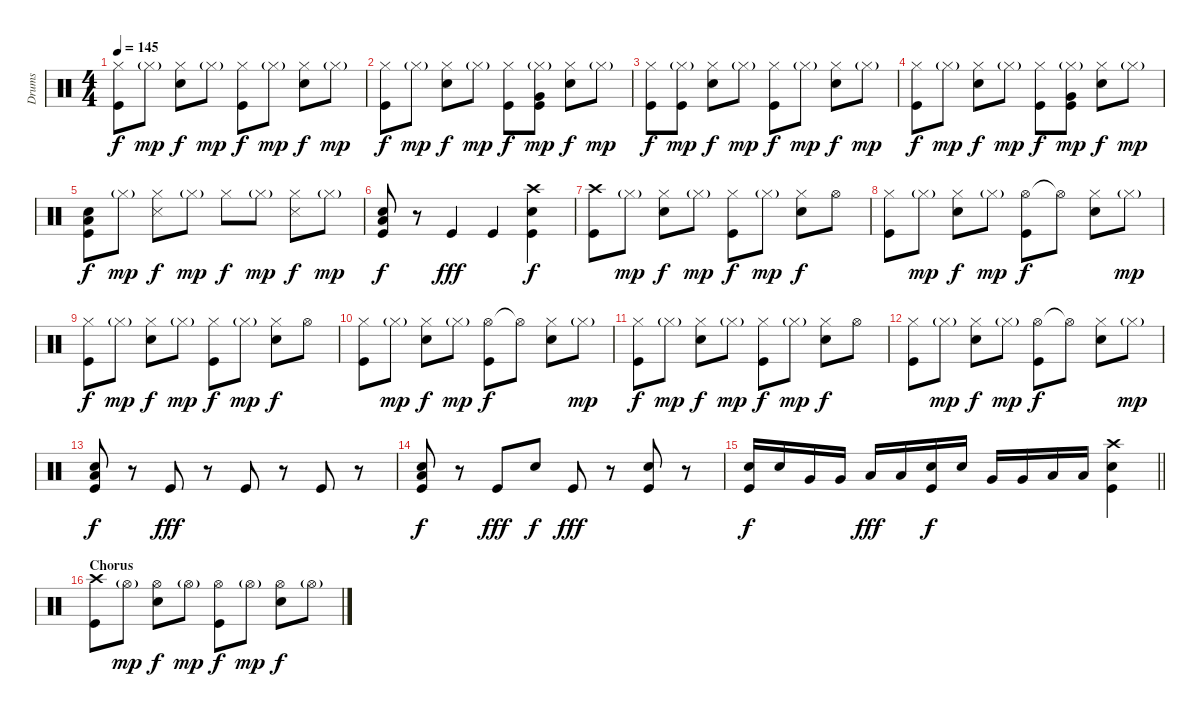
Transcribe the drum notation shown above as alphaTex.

\track ("Drums" "Drums") {instrument percussion}
\staff {score}
\articulation defaults
\ts (4 4)
\tempo 145
\clef neutral
\ks c
("Hi-Hat (closed)" "Kick (hit)").8{dy f} "Hi-Hat (closed)"{g}.8{dy mp} ("Hi-Hat (closed)" "Snare (hit) 2").8{dy f} "Hi-Hat (closed)"{g}.8{dy mp} ("Hi-Hat (closed)" "Kick (hit)").8{dy f} "Hi-Hat (closed)"{g}.8{dy mp} ("Hi-Hat (closed)" "Snare (hit) 2").8{dy f} "Hi-Hat (closed)"{g}.8{dy mp} |
("Hi-Hat (closed)" "Kick (hit)").8{dy f} "Hi-Hat (closed)"{g}.8{dy mp} ("Hi-Hat (closed)" "Snare (hit) 2").8{dy f} "Hi-Hat (closed)"{g}.8{dy mp} ("Hi-Hat (closed)" "Kick (hit)").8{dy f} ("Hi-Hat (closed)"{g} "Very Low Tom (hit)" "Kick (hit)").8{dy mp} ("Hi-Hat (closed)" "Snare (hit) 2").8{dy f} "Hi-Hat (closed)"{g}.8{dy mp} |
("Hi-Hat (closed)" "Kick (hit)").8{dy f} ("Hi-Hat (closed)"{g} "Kick (hit)").8{dy mp} ("Hi-Hat (closed)" "Snare (hit) 2").8{dy f} "Hi-Hat (closed)"{g}.8{dy mp} ("Hi-Hat (closed)" "Kick (hit)").8{dy f} "Hi-Hat (closed)"{g}.8{dy mp} ("Hi-Hat (closed)" "Snare (hit) 2").8{dy f} "Hi-Hat (closed)"{g}.8{dy mp} |
("Hi-Hat (closed)" "Kick (hit)").8{dy f} "Hi-Hat (closed)"{g}.8{dy mp} ("Hi-Hat (closed)" "Snare (hit) 2").8{dy f} "Hi-Hat (closed)"{g}.8{dy mp} ("Hi-Hat (closed)" "Kick (hit)").8{dy f} ("Hi-Hat (closed)"{g} "Very Low Tom (hit)" "Kick (hit)").8{dy mp} ("Hi-Hat (closed)" "Snare (hit) 2").8{dy f} "Hi-Hat (closed)"{g}.8{dy mp} |
("Snare (hit) 2" "Low Floor Tom (hit)" "Kick (hit)").8{dy f} "Hi-Hat (closed)"{g}.8{dy mp} ("Hi-Hat (closed)" "Snare (side stick) 3").8{dy f} "Hi-Hat (closed)"{g}.8{dy mp} "Hi-Hat (closed)".8{dy f} "Hi-Hat (closed)"{g}.8{dy mp} ("Hi-Hat (closed)" "Snare (side stick) 3").8{dy f} "Hi-Hat (closed)"{g}.8{dy mp} |
("Snare (hit) 2" "Low Floor Tom (hit)" "Kick (hit)").8{dy f} r.8 "Kick (hit)".4{dy fff} "Kick (hit)".4 ("Crash high (hit)" "Snare (hit) 2" "Kick (hit)").4{dy f} |
("Crash high (hit)" "Kick (hit)").8 "Hi-Hat (closed)"{g}.8{dy mp} ("Hi-Hat (closed)" "Snare (hit) 2").8{dy f} "Hi-Hat (closed)"{g}.8{dy mp} ("Hi-Hat (closed)" "Kick (hit)").8{dy f} "Hi-Hat (closed)"{g}.8{dy mp} ("Hi-Hat (closed)" "Snare (hit) 2").8{dy f} "Hi-Hat (open)".8 |
("Hi-Hat (closed)" "Kick (hit)").8 "Hi-Hat (closed)"{g}.8{dy mp} ("Hi-Hat (closed)" "Snare (hit) 2").8{dy f} "Hi-Hat (closed)"{g}.8{dy mp} ("Hi-Hat (open)" "Kick (hit)").8{dy f} "Hi-Hat (open)"{t}.8 ("Hi-Hat (closed)" "Snare (hit) 2").8 "Hi-Hat (closed)"{g}.8{dy mp} |
("Hi-Hat (closed)" "Kick (hit)").8{dy f} "Hi-Hat (closed)"{g}.8{dy mp} ("Hi-Hat (closed)" "Snare (hit) 2").8{dy f} "Hi-Hat (closed)"{g}.8{dy mp} ("Hi-Hat (closed)" "Kick (hit)").8{dy f} "Hi-Hat (closed)"{g}.8{dy mp} ("Hi-Hat (closed)" "Snare (hit) 2").8{dy f} "Hi-Hat (open)".8 |
("Hi-Hat (closed)" "Kick (hit)").8 "Hi-Hat (closed)"{g}.8{dy mp} ("Hi-Hat (closed)" "Snare (hit) 2").8{dy f} "Hi-Hat (closed)"{g}.8{dy mp} ("Hi-Hat (open)" "Kick (hit)").8{dy f} "Hi-Hat (open)"{t}.8 ("Hi-Hat (closed)" "Snare (hit) 2").8 "Hi-Hat (closed)"{g}.8{dy mp} |
("Hi-Hat (closed)" "Kick (hit)").8{dy f} "Hi-Hat (closed)"{g}.8{dy mp} ("Hi-Hat (closed)" "Snare (hit) 2").8{dy f} "Hi-Hat (closed)"{g}.8{dy mp} ("Hi-Hat (closed)" "Kick (hit)").8{dy f} "Hi-Hat (closed)"{g}.8{dy mp} ("Hi-Hat (closed)" "Snare (hit) 2").8{dy f} "Hi-Hat (open)".8 |
("Hi-Hat (closed)" "Kick (hit)").8 "Hi-Hat (closed)"{g}.8{dy mp} ("Hi-Hat (closed)" "Snare (hit) 2").8{dy f} "Hi-Hat (closed)"{g}.8{dy mp} ("Hi-Hat (open)" "Kick (hit)").8{dy f} "Hi-Hat (open)"{t}.8 ("Hi-Hat (closed)" "Snare (hit) 2").8 "Hi-Hat (closed)"{g}.8{dy mp} |
("Snare (hit) 2" "Low Floor Tom (hit)" "Kick (hit)").8{dy f} r.8 "Kick (hit)".8{dy fff} r.8 "Kick (hit)".8 r.8 "Kick (hit)".8 r.8 |
("Snare (hit) 2" "Low Floor Tom (hit)" "Kick (hit)").8{dy f} r.8 "Kick (hit)".8{dy fff} "Snare (hit) 2".8{dy f} "Kick (hit)".8{dy fff} r.8 ("Snare (hit) 2" "Kick (hit)").8 r.8 |
\barLineRight lightlight
("Snare (hit) 2" "Kick (hit)").16{dy f} "Snare (hit) 2".16 "Very Low Tom (hit)".16 "Very Low Tom (hit)".16 "Low Floor Tom (hit)".16{dy fff} "Low Floor Tom (hit)".16 ("Snare (hit) 2" "Kick (hit)").16{dy f} "Snare (hit) 2".16 "Very Low Tom (hit)".16 "Very Low Tom (hit)".16 "Low Floor Tom (hit)".16 "Low Floor Tom (hit)".16 ("Crash high (hit)" "Snare (hit) 2" "Kick (hit)").4 |
\section ("" "Chorus")
("Crash high (hit)" "Kick (hit)").8 "Hi-Hat (open)"{g}.8{dy mp} ("Hi-Hat (open)" "Snare (hit) 2").8{dy f} "Hi-Hat (open)"{g}.8{dy mp} ("Hi-Hat (open)" "Kick (hit)").8{dy f} "Hi-Hat (open)"{g}.8{dy mp} ("Hi-Hat (open)" "Snare (hit) 2").8{dy f} "Hi-Hat (open)"{g}.8
